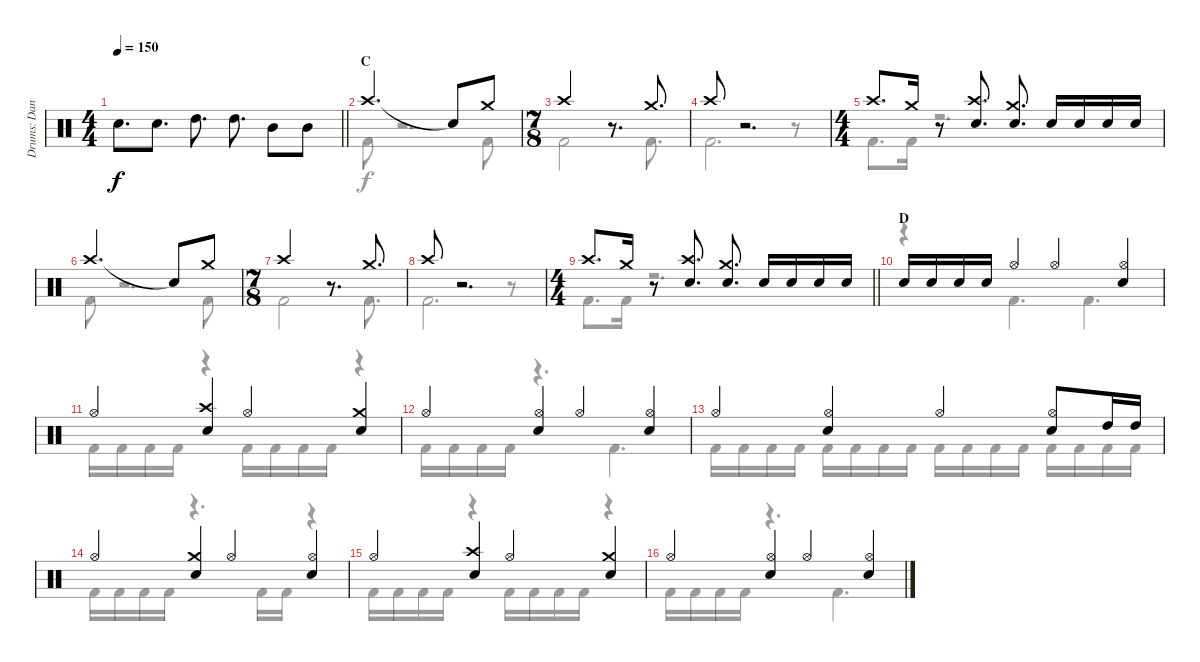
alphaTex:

\track ("Drums: Dana" "Drums: Dan") {instrument percussion}
\staff {score}
\articulation defaults
\voice
\ts (4 4)
\tempo 150
\clef neutral
\barLineRight lightlight
\ks c "Snare (hit) 2".8{d dy f} "Snare (hit) 2".8{d} "High Tom (hit)".8{d} "High Tom (hit)".8{d} "Mid Tom (hit)".8 "Mid Tom (hit)".8
|
\section ("" "C")
"Crash high (hit)".2{d} "Snare (hit)"{t}.8 "Crash medium (hit)".8 |
\ts (7 8)
"Crash high (hit)".2 r.8{d} "Crash medium (hit)".8{d} |
"Crash high (hit)".8 r.2{d} |
\ts (4 4)
"Crash high (hit)".8{d} "Crash medium (hit)".16 r.8 ("Crash high (hit)" "Snare (hit) 2").8{d} ("Crash medium (hit)" "Snare (hit) 2").8{d} "Snare (hit) 2".16 "Snare (hit) 2".16 "Snare (hit) 2".16 "Snare (hit) 2".16 |
"Crash high (hit)".2{d} "Snare (hit)"{t}.8 "Crash medium (hit)".8 |
\ts (7 8)
"Crash high (hit)".2 r.8{d} "Crash medium (hit)".8{d} |
"Crash high (hit)".8 r.2{d} |
\ts (4 4)
\barLineRight lightlight "Crash high (hit)".8{d} "Crash medium (hit)".16
r.8 ("Crash high (hit)" "Snare (hit) 2").8{d} ("Crash medium (hit)" "Snare (hit) 2").8{d} "Snare (hit) 2".16 "Snare (hit) 2".16 "Snare (hit) 2".16 "Snare (hit) 2".16 |
\section ("" "D")
"Snare (hit) 2".16 "Snare (hit) 2".16 "Snare (hit) 2".16 "Snare (hit) 2".16 "Hi-Hat (open)".4 "Hi-Hat (open)".4 ("Hi-Hat (open)" "Snare (hit) 2").4 |
"Hi-Hat (open)".4 ("Crash high (hit)" "Snare (hit) 2").4 "Hi-Hat (open)".4 ("Crash medium (hit)" "Snare (hit) 2").4 |
"Hi-Hat (open)".4 ("Hi-Hat (open)" "Snare (hit) 2").4 "Hi-Hat (open)".4 ("Hi-Hat (open)" "Snare (hit) 2").4 |
"Hi-Hat (open)".4 ("Hi-Hat (open)" "Snare (hit) 2").4 "Hi-Hat (open)".4 ("Hi-Hat (open)" "Snare (hit) 2").8 "High Tom (hit)".16 "High Tom (hit)".16 |
"Hi-Hat (open)".4 ("Crash medium (hit)" "Snare (hit) 2").4 "Hi-Hat (open)".4 ("Hi-Hat (open)" "Snare (hit) 2").4 |
"Hi-Hat (open)".4 ("Crash high (hit)" "Snare (hit) 2").4 "Hi-Hat (open)".4 ("Crash medium (hit)" "Snare (hit) 2").4 |
"Hi-Hat (open)".4 ("Hi-Hat (open)" "Snare (hit) 2").4 "Hi-Hat (open)".4 ("Hi-Hat (open)" "Snare (hit) 2").4
\voice
\clef neutral
\ottava regular
\simile none
\barLineRight lightlight
\ks c
|
"Kick (hit) 2".8 r.2{d} "Kick (hit) 2".8 |
"Kick (hit) 2".2 r.8{d} "Kick (hit) 2".8{d} |
"Kick (hit) 2".2{d} r.8 |
"Kick (hit) 2".8{d} "Kick (hit) 2".16 r.2{d} |
"Kick (hit) 2".8 r.2{d} "Kick (hit) 2".8 |
"Kick (hit) 2".2 r.8{d} "Kick (hit) 2".8{d} |
"Kick (hit) 2".2{d} r.8 |
\barLineRight lightlight "Kick (hit) 2".8{d} "Kick (hit) 2".16
r.2{d} |
r.4 "Kick (hit) 2".4{d} "Kick (hit) 2".4{d} |
"Kick (hit) 2".16 "Kick (hit) 2".16 "Kick (hit) 2".16 "Kick (hit) 2".16 r.4 "Kick (hit) 2".16 "Kick (hit) 2".16 "Kick (hit) 2".16 "Kick (hit) 2".16 r.4 |
"Kick (hit) 2".16 "Kick (hit) 2".16 "Kick (hit) 2".16 "Kick (hit) 2".16 r.4{d} "Kick (hit) 2".4{d} |
"Kick (hit) 2".16 "Kick (hit) 2".16 "Kick (hit) 2".16 "Kick (hit) 2".16 "Kick (hit) 2".16 "Kick (hit) 2".16 "Kick (hit) 2".16 "Kick (hit) 2".16 "Kick (hit) 2".16 "Kick (hit) 2".16 "Kick (hit) 2".16 "Kick (hit) 2".16 "Kick (hit) 2".16 "Kick (hit) 2".16 "Kick (hit) 2".16 "Kick (hit) 2".16 |
"Kick (hit) 2".16 "Kick (hit) 2".16 "Kick (hit) 2".16 "Kick (hit) 2".16 r.4{d} "Kick (hit) 2".16 "Kick (hit) 2".16 r.4 |
"Kick (hit) 2".16 "Kick (hit) 2".16 "Kick (hit) 2".16 "Kick (hit) 2".16 r.4 "Kick (hit) 2".16 "Kick (hit) 2".16 "Kick (hit) 2".16 "Kick (hit) 2".16 r.4 |
"Kick (hit) 2".16 "Kick (hit) 2".16 "Kick (hit) 2".16 "Kick (hit) 2".16 r.4{d} "Kick (hit) 2".4{d}
